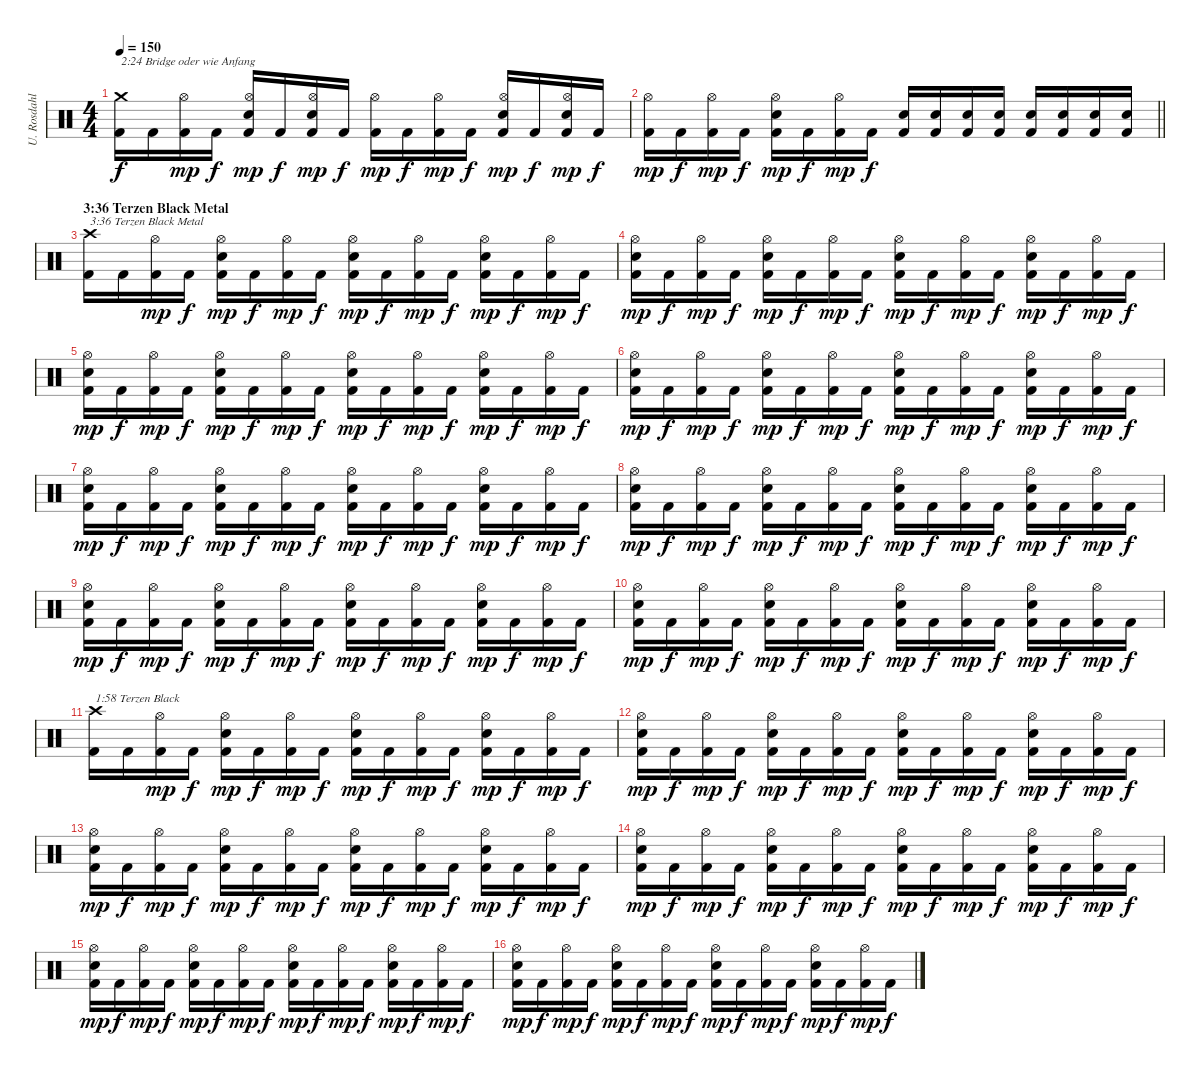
\track ("U. Rosdahl" "U. Rosdahl") {instrument percussion}
\staff {score}
\articulation defaults
\ts (4 4)
\tempo 150
\clef neutral
\ks c
("Kick (hit) 2" "Crash medium (hit)").16{txt "2:24 Bridge oder wie Anfang" dy f} "Kick (hit) 2".16 ("Kick (hit) 2" "Hi-Hat (open)").16{dy mp} "Kick (hit) 2".16{dy f} ("Kick (hit) 2" "Electric Snare (hit)" "Hi-Hat (open)").16{dy mp} "Kick (hit) 2".16{dy f} ("Kick (hit) 2" "Electric Snare (hit)" "Hi-Hat (open)").16{dy mp} "Kick (hit) 2".16{dy f} ("Kick (hit) 2" "Hi-Hat (open)").16{dy mp} "Kick (hit) 2".16{dy f} ("Kick (hit) 2" "Hi-Hat (open)").16{dy mp} "Kick (hit) 2".16{dy f} ("Kick (hit) 2" "Electric Snare (hit)" "Hi-Hat (open)").16{dy mp} "Kick (hit) 2".16{dy f} ("Kick (hit) 2" "Electric Snare (hit)" "Hi-Hat (open)").16{dy mp} "Kick (hit) 2".16{dy f} |
\barLineRight lightlight
("Kick (hit) 2" "Hi-Hat (open)").16{dy mp} "Kick (hit) 2".16{dy f} ("Kick (hit) 2" "Hi-Hat (open)").16{dy mp} "Kick (hit) 2".16{dy f} ("Kick (hit) 2" "Electric Snare (hit)" "Hi-Hat (open)").16{dy mp} "Kick (hit) 2".16{dy f} ("Kick (hit) 2" "Hi-Hat (open)").16{dy mp} "Kick (hit) 2".16{dy f} ("Kick (hit) 2" "Electric Snare (hit)").16 ("Kick (hit) 2" "Electric Snare (hit)").16 ("Kick (hit) 2" "Electric Snare (hit)").16 ("Kick (hit) 2" "Electric Snare (hit)").16 ("Kick (hit) 2" "Electric Snare (hit)").16 ("Kick (hit) 2" "Electric Snare (hit)").16 ("Kick (hit) 2" "Electric Snare (hit)").16 ("Kick (hit) 2" "Electric Snare (hit)").16 |
\section ("" "3:36 Terzen Black Metal")
("Kick (hit) 2" "Crash high (hit)").16{txt "3:36 Terzen Black Metal"} "Kick (hit) 2".16 ("Kick (hit) 2" "Hi-Hat (open)").16{dy mp} "Kick (hit) 2".16{dy f} ("Kick (hit) 2" "Electric Snare (hit)" "Hi-Hat (open)").16{dy mp} "Kick (hit) 2".16{dy f} ("Kick (hit) 2" "Hi-Hat (open)").16{dy mp} "Kick (hit) 2".16{dy f} ("Kick (hit) 2" "Electric Snare (hit)" "Hi-Hat (open)").16{dy mp} "Kick (hit) 2".16{dy f} ("Kick (hit) 2" "Hi-Hat (open)").16{dy mp} "Kick (hit) 2".16{dy f} ("Kick (hit) 2" "Electric Snare (hit)" "Hi-Hat (open)").16{dy mp} "Kick (hit) 2".16{dy f} ("Kick (hit) 2" "Hi-Hat (open)").16{dy mp} "Kick (hit) 2".16{dy f} |
("Kick (hit) 2" "Electric Snare (hit)" "Hi-Hat (open)").16{dy mp} "Kick (hit) 2".16{dy f} ("Kick (hit) 2" "Hi-Hat (open)").16{dy mp} "Kick (hit) 2".16{dy f} ("Kick (hit) 2" "Electric Snare (hit)" "Hi-Hat (open)").16{dy mp} "Kick (hit) 2".16{dy f} ("Kick (hit) 2" "Hi-Hat (open)").16{dy mp} "Kick (hit) 2".16{dy f} ("Kick (hit) 2" "Electric Snare (hit)" "Hi-Hat (open)").16{dy mp} "Kick (hit) 2".16{dy f} ("Kick (hit) 2" "Hi-Hat (open)").16{dy mp} "Kick (hit) 2".16{dy f} ("Kick (hit) 2" "Electric Snare (hit)" "Hi-Hat (open)").16{dy mp} "Kick (hit) 2".16{dy f} ("Kick (hit) 2" "Hi-Hat (open)").16{dy mp} "Kick (hit) 2".16{dy f} |
("Kick (hit) 2" "Electric Snare (hit)" "Hi-Hat (open)").16{dy mp} "Kick (hit) 2".16{dy f} ("Kick (hit) 2" "Hi-Hat (open)").16{dy mp} "Kick (hit) 2".16{dy f} ("Kick (hit) 2" "Electric Snare (hit)" "Hi-Hat (open)").16{dy mp} "Kick (hit) 2".16{dy f} ("Kick (hit) 2" "Hi-Hat (open)").16{dy mp} "Kick (hit) 2".16{dy f} ("Kick (hit) 2" "Electric Snare (hit)" "Hi-Hat (open)").16{dy mp} "Kick (hit) 2".16{dy f} ("Kick (hit) 2" "Hi-Hat (open)").16{dy mp} "Kick (hit) 2".16{dy f} ("Kick (hit) 2" "Electric Snare (hit)" "Hi-Hat (open)").16{dy mp} "Kick (hit) 2".16{dy f} ("Kick (hit) 2" "Hi-Hat (open)").16{dy mp} "Kick (hit) 2".16{dy f} |
("Kick (hit) 2" "Electric Snare (hit)" "Hi-Hat (open)").16{dy mp} "Kick (hit) 2".16{dy f} ("Kick (hit) 2" "Hi-Hat (open)").16{dy mp} "Kick (hit) 2".16{dy f} ("Kick (hit) 2" "Electric Snare (hit)" "Hi-Hat (open)").16{dy mp} "Kick (hit) 2".16{dy f} ("Kick (hit) 2" "Hi-Hat (open)").16{dy mp} "Kick (hit) 2".16{dy f} ("Kick (hit) 2" "Electric Snare (hit)" "Hi-Hat (open)").16{dy mp} "Kick (hit) 2".16{dy f} ("Kick (hit) 2" "Hi-Hat (open)").16{dy mp} "Kick (hit) 2".16{dy f} ("Kick (hit) 2" "Electric Snare (hit)" "Hi-Hat (open)").16{dy mp} "Kick (hit) 2".16{dy f} ("Kick (hit) 2" "Hi-Hat (open)").16{dy mp} "Kick (hit) 2".16{dy f} |
("Kick (hit) 2" "Electric Snare (hit)" "Hi-Hat (open)").16{dy mp} "Kick (hit) 2".16{dy f} ("Kick (hit) 2" "Hi-Hat (open)").16{dy mp} "Kick (hit) 2".16{dy f} ("Kick (hit) 2" "Electric Snare (hit)" "Hi-Hat (open)").16{dy mp} "Kick (hit) 2".16{dy f} ("Kick (hit) 2" "Hi-Hat (open)").16{dy mp} "Kick (hit) 2".16{dy f} ("Kick (hit) 2" "Electric Snare (hit)" "Hi-Hat (open)").16{dy mp} "Kick (hit) 2".16{dy f} ("Kick (hit) 2" "Hi-Hat (open)").16{dy mp} "Kick (hit) 2".16{dy f} ("Kick (hit) 2" "Electric Snare (hit)" "Hi-Hat (open)").16{dy mp} "Kick (hit) 2".16{dy f} ("Kick (hit) 2" "Hi-Hat (open)").16{dy mp} "Kick (hit) 2".16{dy f} |
("Kick (hit) 2" "Electric Snare (hit)" "Hi-Hat (open)").16{dy mp} "Kick (hit) 2".16{dy f} ("Kick (hit) 2" "Hi-Hat (open)").16{dy mp} "Kick (hit) 2".16{dy f} ("Kick (hit) 2" "Electric Snare (hit)" "Hi-Hat (open)").16{dy mp} "Kick (hit) 2".16{dy f} ("Kick (hit) 2" "Hi-Hat (open)").16{dy mp} "Kick (hit) 2".16{dy f} ("Kick (hit) 2" "Electric Snare (hit)" "Hi-Hat (open)").16{dy mp} "Kick (hit) 2".16{dy f} ("Kick (hit) 2" "Hi-Hat (open)").16{dy mp} "Kick (hit) 2".16{dy f} ("Kick (hit) 2" "Electric Snare (hit)" "Hi-Hat (open)").16{dy mp} "Kick (hit) 2".16{dy f} ("Kick (hit) 2" "Hi-Hat (open)").16{dy mp} "Kick (hit) 2".16{dy f} |
("Kick (hit) 2" "Electric Snare (hit)" "Hi-Hat (open)").16{dy mp} "Kick (hit) 2".16{dy f} ("Kick (hit) 2" "Hi-Hat (open)").16{dy mp} "Kick (hit) 2".16{dy f} ("Kick (hit) 2" "Electric Snare (hit)" "Hi-Hat (open)").16{dy mp} "Kick (hit) 2".16{dy f} ("Kick (hit) 2" "Hi-Hat (open)").16{dy mp} "Kick (hit) 2".16{dy f} ("Kick (hit) 2" "Electric Snare (hit)" "Hi-Hat (open)").16{dy mp} "Kick (hit) 2".16{dy f} ("Kick (hit) 2" "Hi-Hat (open)").16{dy mp} "Kick (hit) 2".16{dy f} ("Kick (hit) 2" "Electric Snare (hit)" "Hi-Hat (open)").16{dy mp} "Kick (hit) 2".16{dy f} ("Kick (hit) 2" "Hi-Hat (open)").16{dy mp} "Kick (hit) 2".16{dy f} |
("Kick (hit) 2" "Electric Snare (hit)" "Hi-Hat (open)").16{dy mp} "Kick (hit) 2".16{dy f} ("Kick (hit) 2" "Hi-Hat (open)").16{dy mp} "Kick (hit) 2".16{dy f} ("Kick (hit) 2" "Electric Snare (hit)" "Hi-Hat (open)").16{dy mp} "Kick (hit) 2".16{dy f} ("Kick (hit) 2" "Hi-Hat (open)").16{dy mp} "Kick (hit) 2".16{dy f} ("Kick (hit) 2" "Electric Snare (hit)" "Hi-Hat (open)").16{dy mp} "Kick (hit) 2".16{dy f} ("Kick (hit) 2" "Hi-Hat (open)").16{dy mp} "Kick (hit) 2".16{dy f} ("Kick (hit) 2" "Electric Snare (hit)" "Hi-Hat (open)").16{dy mp} "Kick (hit) 2".16{dy f} ("Kick (hit) 2" "Hi-Hat (open)").16{dy mp} "Kick (hit) 2".16{dy f} |
("Kick (hit) 2" "Crash high (hit)").16{txt "1:58 Terzen Black"} "Kick (hit) 2".16 ("Kick (hit) 2" "Hi-Hat (open)").16{dy mp} "Kick (hit) 2".16{dy f} ("Kick (hit) 2" "Electric Snare (hit)" "Hi-Hat (open)").16{dy mp} "Kick (hit) 2".16{dy f} ("Kick (hit) 2" "Hi-Hat (open)").16{dy mp} "Kick (hit) 2".16{dy f} ("Kick (hit) 2" "Electric Snare (hit)" "Hi-Hat (open)").16{dy mp} "Kick (hit) 2".16{dy f} ("Kick (hit) 2" "Hi-Hat (open)").16{dy mp} "Kick (hit) 2".16{dy f} ("Kick (hit) 2" "Electric Snare (hit)" "Hi-Hat (open)").16{dy mp} "Kick (hit) 2".16{dy f} ("Kick (hit) 2" "Hi-Hat (open)").16{dy mp} "Kick (hit) 2".16{dy f} |
("Kick (hit) 2" "Electric Snare (hit)" "Hi-Hat (open)").16{dy mp} "Kick (hit) 2".16{dy f} ("Kick (hit) 2" "Hi-Hat (open)").16{dy mp} "Kick (hit) 2".16{dy f} ("Kick (hit) 2" "Electric Snare (hit)" "Hi-Hat (open)").16{dy mp} "Kick (hit) 2".16{dy f} ("Kick (hit) 2" "Hi-Hat (open)").16{dy mp} "Kick (hit) 2".16{dy f} ("Kick (hit) 2" "Electric Snare (hit)" "Hi-Hat (open)").16{dy mp} "Kick (hit) 2".16{dy f} ("Kick (hit) 2" "Hi-Hat (open)").16{dy mp} "Kick (hit) 2".16{dy f} ("Kick (hit) 2" "Electric Snare (hit)" "Hi-Hat (open)").16{dy mp} "Kick (hit) 2".16{dy f} ("Kick (hit) 2" "Hi-Hat (open)").16{dy mp} "Kick (hit) 2".16{dy f} |
("Kick (hit) 2" "Electric Snare (hit)" "Hi-Hat (open)").16{dy mp} "Kick (hit) 2".16{dy f} ("Kick (hit) 2" "Hi-Hat (open)").16{dy mp} "Kick (hit) 2".16{dy f} ("Kick (hit) 2" "Electric Snare (hit)" "Hi-Hat (open)").16{dy mp} "Kick (hit) 2".16{dy f} ("Kick (hit) 2" "Hi-Hat (open)").16{dy mp} "Kick (hit) 2".16{dy f} ("Kick (hit) 2" "Electric Snare (hit)" "Hi-Hat (open)").16{dy mp} "Kick (hit) 2".16{dy f} ("Kick (hit) 2" "Hi-Hat (open)").16{dy mp} "Kick (hit) 2".16{dy f} ("Kick (hit) 2" "Electric Snare (hit)" "Hi-Hat (open)").16{dy mp} "Kick (hit) 2".16{dy f} ("Kick (hit) 2" "Hi-Hat (open)").16{dy mp} "Kick (hit) 2".16{dy f} |
("Kick (hit) 2" "Electric Snare (hit)" "Hi-Hat (open)").16{dy mp} "Kick (hit) 2".16{dy f} ("Kick (hit) 2" "Hi-Hat (open)").16{dy mp} "Kick (hit) 2".16{dy f} ("Kick (hit) 2" "Electric Snare (hit)" "Hi-Hat (open)").16{dy mp} "Kick (hit) 2".16{dy f} ("Kick (hit) 2" "Hi-Hat (open)").16{dy mp} "Kick (hit) 2".16{dy f} ("Kick (hit) 2" "Electric Snare (hit)" "Hi-Hat (open)").16{dy mp} "Kick (hit) 2".16{dy f} ("Kick (hit) 2" "Hi-Hat (open)").16{dy mp} "Kick (hit) 2".16{dy f} ("Kick (hit) 2" "Electric Snare (hit)" "Hi-Hat (open)").16{dy mp} "Kick (hit) 2".16{dy f} ("Kick (hit) 2" "Hi-Hat (open)").16{dy mp} "Kick (hit) 2".16{dy f} |
("Kick (hit) 2" "Electric Snare (hit)" "Hi-Hat (open)").16{dy mp} "Kick (hit) 2".16{dy f} ("Kick (hit) 2" "Hi-Hat (open)").16{dy mp} "Kick (hit) 2".16{dy f} ("Kick (hit) 2" "Electric Snare (hit)" "Hi-Hat (open)").16{dy mp} "Kick (hit) 2".16{dy f} ("Kick (hit) 2" "Hi-Hat (open)").16{dy mp} "Kick (hit) 2".16{dy f} ("Kick (hit) 2" "Electric Snare (hit)" "Hi-Hat (open)").16{dy mp} "Kick (hit) 2".16{dy f} ("Kick (hit) 2" "Hi-Hat (open)").16{dy mp} "Kick (hit) 2".16{dy f} ("Kick (hit) 2" "Electric Snare (hit)" "Hi-Hat (open)").16{dy mp} "Kick (hit) 2".16{dy f} ("Kick (hit) 2" "Hi-Hat (open)").16{dy mp} "Kick (hit) 2".16{dy f} |
("Kick (hit) 2" "Electric Snare (hit)" "Hi-Hat (open)").16{dy mp} "Kick (hit) 2".16{dy f} ("Kick (hit) 2" "Hi-Hat (open)").16{dy mp} "Kick (hit) 2".16{dy f} ("Kick (hit) 2" "Electric Snare (hit)" "Hi-Hat (open)").16{dy mp} "Kick (hit) 2".16{dy f} ("Kick (hit) 2" "Hi-Hat (open)").16{dy mp} "Kick (hit) 2".16{dy f} ("Kick (hit) 2" "Electric Snare (hit)" "Hi-Hat (open)").16{dy mp} "Kick (hit) 2".16{dy f} ("Kick (hit) 2" "Hi-Hat (open)").16{dy mp} "Kick (hit) 2".16{dy f} ("Kick (hit) 2" "Electric Snare (hit)" "Hi-Hat (open)").16{dy mp} "Kick (hit) 2".16{dy f} ("Kick (hit) 2" "Hi-Hat (open)").16{dy mp} "Kick (hit) 2".16{dy f}
